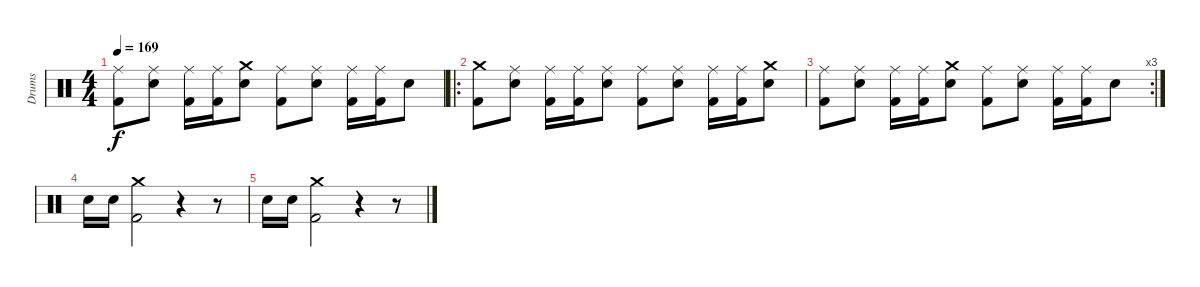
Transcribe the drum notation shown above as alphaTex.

\track ("Drums" "Drums") {instrument percussion}
\staff {score}
\articulation defaults
\ts (4 4)
\tempo 169
\clef neutral
\ks c
("Ride (middle)" "Kick (hit) 2").8{dy f} ("Ride (middle)" "Electric Snare (hit)").8 ("Ride (middle)" "Kick (hit) 2").16 ("Ride (middle)" "Kick (hit) 2").16 ("Crash medium (hit)" "Electric Snare (hit)").8 ("Ride (middle)" "Kick (hit) 2").8 ("Ride (middle)" "Electric Snare (hit)").8 ("Ride (middle)" "Kick (hit) 2").16 ("Ride (middle)" "Kick (hit) 2").16 "Electric Snare (hit)".8 |
\ro
("Crash medium (hit)" "Kick (hit) 2").8 ("Ride (middle)" "Electric Snare (hit)").8 ("Ride (middle)" "Kick (hit) 2").16 ("Ride (middle)" "Kick (hit) 2").16 ("Ride (middle)" "Electric Snare (hit)").8 ("Ride (middle)" "Kick (hit) 2").8 ("Ride (middle)" "Electric Snare (hit)").8 ("Ride (middle)" "Kick (hit) 2").16 ("Ride (middle)" "Kick (hit) 2").16 ("Crash medium (hit)" "Electric Snare (hit)").8 |
\rc 3
("Ride (middle)" "Kick (hit) 2").8 ("Ride (middle)" "Electric Snare (hit)").8 ("Ride (middle)" "Kick (hit) 2").16 ("Ride (middle)" "Kick (hit) 2").16 ("Crash medium (hit)" "Electric Snare (hit)").8 ("Ride (middle)" "Kick (hit) 2").8 ("Ride (middle)" "Electric Snare (hit)").8 ("Ride (middle)" "Kick (hit) 2").16 ("Ride (middle)" "Kick (hit) 2").16 "Electric Snare (hit)".8 |
"Electric Snare (hit)".16 "Electric Snare (hit)".16 ("Crash medium (hit)" "Kick (hit) 2").2 r.4 r.8 |
"Electric Snare (hit)".16 "Electric Snare (hit)".16 ("Crash medium (hit)" "Kick (hit) 2").2 r.4 r.8
